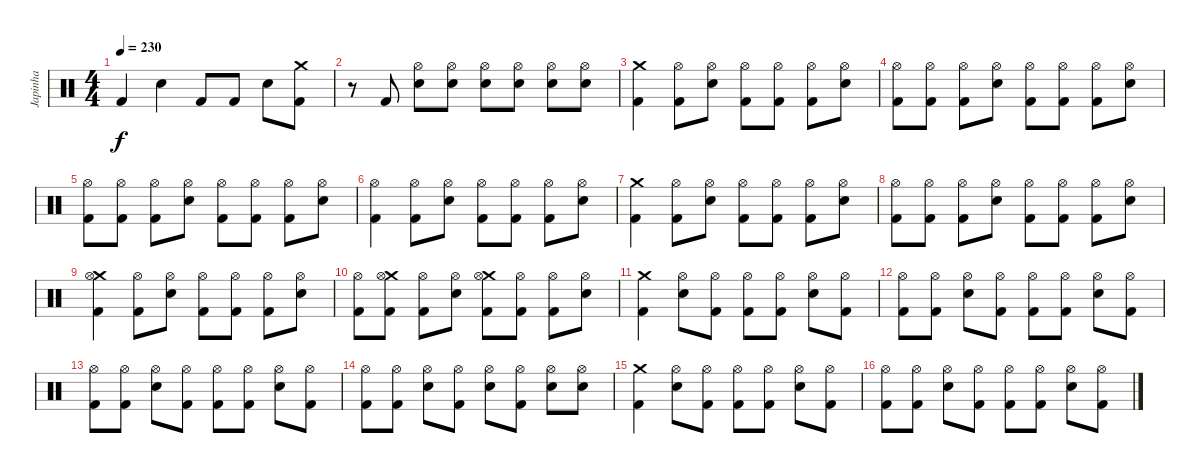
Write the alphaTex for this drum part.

\track ("Japinha" "Japinha") {instrument percussion}
\staff {score}
\articulation defaults
\ts (4 4)
\tempo 230
\clef neutral
\ks c "Kick (hit) 2".4{dy f} "Snare (hit) 2".4 "Kick (hit) 2".8 "Kick (hit) 2".8 "Snare (hit) 2".8
("Crash medium (hit)" "Kick (hit) 2").8 |
r.8 "Kick (hit) 2".8 ("Hi-Hat (open)" "Electric Snare (hit)").8 ("Hi-Hat (open)" "Snare (hit) 2").8 ("Hi-Hat (open)" "Electric Snare (hit)").8 ("Hi-Hat (open)" "Snare (hit) 2").8 ("Hi-Hat (open)" "Electric Snare (hit)").8 ("Hi-Hat (open)" "Snare (hit) 2").8 |
("Crash medium (hit)" "Kick (hit) 2").4 ("Hi-Hat (open)" "Kick (hit) 2").8 ("Hi-Hat (open)" "Snare (hit) 2").8 ("Hi-Hat (open)" "Kick (hit) 2").8 ("Hi-Hat (open)" "Kick (hit) 2").8 ("Hi-Hat (open)" "Kick (hit) 2").8 ("Hi-Hat (open)" "Snare (hit) 2").8 |
("Hi-Hat (open)" "Kick (hit) 2").8 ("Hi-Hat (open)" "Kick (hit) 2").8 ("Hi-Hat (open)" "Kick (hit) 2").8 ("Hi-Hat (open)" "Snare (hit) 2").8 ("Hi-Hat (open)" "Kick (hit) 2").8 ("Hi-Hat (open)" "Kick (hit) 2").8 ("Hi-Hat (open)" "Kick (hit) 2").8 ("Hi-Hat (open)" "Snare (hit) 2").8 |
("Hi-Hat (open)" "Kick (hit) 2").8 ("Hi-Hat (open)" "Kick (hit) 2").8 ("Hi-Hat (open)" "Kick (hit) 2").8 ("Hi-Hat (open)" "Snare (hit) 2").8 ("Hi-Hat (open)" "Kick (hit) 2").8 ("Hi-Hat (open)" "Kick (hit) 2").8 ("Hi-Hat (open)" "Kick (hit) 2").8 ("Hi-Hat (open)" "Snare (hit) 2").8 |
("Hi-Hat (open)" "Kick (hit) 2").4 ("Hi-Hat (open)" "Kick (hit) 2").8 ("Hi-Hat (open)" "Snare (hit) 2").8 ("Hi-Hat (open)" "Kick (hit) 2").8 ("Hi-Hat (open)" "Kick (hit) 2").8 ("Hi-Hat (open)" "Kick (hit) 2").8 ("Hi-Hat (open)" "Snare (hit) 2").8 |
("Crash medium (hit)" "Kick (hit) 2").4 ("Hi-Hat (open)" "Kick (hit) 2").8 ("Hi-Hat (open)" "Snare (hit) 2").8 ("Hi-Hat (open)" "Kick (hit) 2").8 ("Hi-Hat (open)" "Kick (hit) 2").8 ("Hi-Hat (open)" "Kick (hit) 2").8 ("Hi-Hat (open)" "Snare (hit) 2").8 |
("Hi-Hat (open)" "Kick (hit) 2").8 ("Hi-Hat (open)" "Kick (hit) 2").8 ("Hi-Hat (open)" "Kick (hit) 2").8 ("Hi-Hat (open)" "Snare (hit) 2").8 ("Hi-Hat (open)" "Kick (hit) 2").8 ("Hi-Hat (open)" "Kick (hit) 2").8 ("Hi-Hat (open)" "Kick (hit) 2").8 ("Hi-Hat (open)" "Snare (hit) 2").8 |
("Crash medium (hit)" "Hi-Hat (open)" "Kick (hit) 2").4 ("Hi-Hat (open)" "Kick (hit) 2").8 ("Hi-Hat (open)" "Snare (hit) 2").8 ("Hi-Hat (open)" "Kick (hit) 2").8 ("Hi-Hat (open)" "Kick (hit) 2").8 ("Hi-Hat (open)" "Kick (hit) 2").8 ("Hi-Hat (open)" "Snare (hit) 2").8 |
("Hi-Hat (open)" "Kick (hit) 2").8 ("Crash medium (hit)" "Hi-Hat (open)" "Kick (hit) 2").8 ("Hi-Hat (open)" "Kick (hit) 2").8 ("Hi-Hat (open)" "Snare (hit) 2").8 ("Crash medium (hit)" "Hi-Hat (open)" "Kick (hit) 2").8 ("Hi-Hat (open)" "Kick (hit) 2").8 ("Hi-Hat (open)" "Kick (hit) 2").8 ("Hi-Hat (open)" "Snare (hit) 2").8 |
("Crash medium (hit)" "Kick (hit) 2").4 ("Hi-Hat (open)" "Snare (hit) 2").8 ("Hi-Hat (open)" "Kick (hit) 2").8 ("Hi-Hat (open)" "Kick (hit) 2").8 ("Hi-Hat (open)" "Kick (hit) 2").8 ("Hi-Hat (open)" "Snare (hit) 2").8 ("Hi-Hat (open)" "Kick (hit) 2").8 |
("Hi-Hat (open)" "Kick (hit) 2").8 ("Hi-Hat (open)" "Kick (hit) 2").8 ("Hi-Hat (open)" "Snare (hit) 2").8 ("Hi-Hat (open)" "Kick (hit) 2").8 ("Hi-Hat (open)" "Kick (hit) 2").8 ("Hi-Hat (open)" "Kick (hit) 2").8 ("Hi-Hat (open)" "Snare (hit) 2").8 ("Hi-Hat (open)" "Kick (hit) 2").8 |
("Hi-Hat (open)" "Kick (hit) 2").8 ("Hi-Hat (open)" "Kick (hit) 2").8 ("Hi-Hat (open)" "Snare (hit) 2").8 ("Hi-Hat (open)" "Kick (hit) 2").8 ("Hi-Hat (open)" "Kick (hit) 2").8 ("Hi-Hat (open)" "Kick (hit) 2").8 ("Hi-Hat (open)" "Snare (hit) 2").8 ("Hi-Hat (open)" "Kick (hit) 2").8 |
("Hi-Hat (open)" "Kick (hit) 2").8 ("Hi-Hat (open)" "Kick (hit) 2").8 ("Hi-Hat (open)" "Snare (hit) 2").8 ("Hi-Hat (open)" "Kick (hit) 2").8 ("Hi-Hat (open)" "Snare (hit) 2").8 ("Hi-Hat (open)" "Kick (hit) 2").8 ("Hi-Hat (open)" "Snare (hit) 2").8 ("Hi-Hat (open)" "Snare (hit) 2").8 |
("Crash medium (hit)" "Kick (hit) 2").4 ("Hi-Hat (open)" "Snare (hit) 2").8 ("Hi-Hat (open)" "Kick (hit) 2").8 ("Hi-Hat (open)" "Kick (hit) 2").8 ("Hi-Hat (open)" "Kick (hit) 2").8 ("Hi-Hat (open)" "Snare (hit) 2").8 ("Hi-Hat (open)" "Kick (hit) 2").8 |
("Hi-Hat (open)" "Kick (hit) 2").8 ("Hi-Hat (open)" "Kick (hit) 2").8 ("Hi-Hat (open)" "Snare (hit) 2").8 ("Hi-Hat (open)" "Kick (hit) 2").8 ("Hi-Hat (open)" "Kick (hit) 2").8 ("Hi-Hat (open)" "Kick (hit) 2").8 ("Hi-Hat (open)" "Snare (hit) 2").8 ("Hi-Hat (open)" "Kick (hit) 2").8
